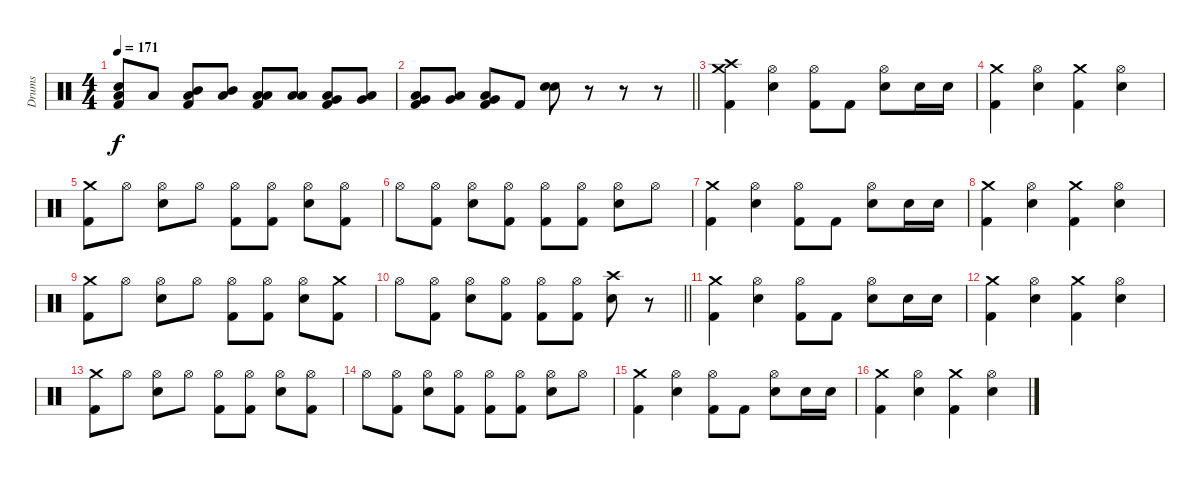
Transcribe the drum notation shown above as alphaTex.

\track ("Drums" "Drums") {instrument percussion}
\staff {score}
\articulation defaults
\ts (4 4)
\tempo 171
\clef neutral
\ks c
("Electric Snare (hit)" "Low Floor Tom (hit)" "Kick (hit) 2").8{dy f} "Low Floor Tom (hit)".8 ("Mid Tom (hit)" "Low Floor Tom (hit)" "Kick (hit) 2").8 ("Mid Tom (hit)" "Low Floor Tom (hit)").8 ("Low Tom (hit)" "Low Floor Tom (hit)" "Kick (hit) 2").8 ("Low Tom (hit)" "Low Floor Tom (hit)").8 ("Very Low Tom (hit)" "Low Floor Tom (hit)" "Kick (hit) 2").8 ("Very Low Tom (hit)" "Low Floor Tom (hit)").8 |
\barLineRight lightlight
("Very Low Tom (hit)" "Low Floor Tom (hit)" "Kick (hit) 2").8 ("Very Low Tom (hit)" "Low Floor Tom (hit)").8 ("Very Low Tom (hit)" "Low Floor Tom (hit)" "Kick (hit) 2").8 "Kick (hit) 2".8 ("Electric Snare (hit)" "Electric Snare (hit)").8 r.8 r.8 r.8 |
("Crash medium (hit)" "Crash high (hit)" "Kick (hit) 2").4 ("Hi-Hat (open)" "Electric Snare (hit)").4 ("Hi-Hat (open)" "Kick (hit) 2").8 "Kick (hit) 2".8 ("Hi-Hat (open)" "Electric Snare (hit)").8 "Electric Snare (hit)".16 "Electric Snare (hit)".16 |
("Crash medium (hit)" "Kick (hit) 2").4 ("Hi-Hat (open)" "Electric Snare (hit)").4 ("Crash medium (hit)" "Kick (hit) 2").4 ("Hi-Hat (open)" "Electric Snare (hit)").4 |
("Crash medium (hit)" "Kick (hit) 2").8 "Hi-Hat (open)".8 ("Hi-Hat (open)" "Electric Snare (hit)").8 "Hi-Hat (open)".8 ("Hi-Hat (open)" "Kick (hit) 2").8 ("Hi-Hat (open)" "Kick (hit) 2").8 ("Hi-Hat (open)" "Electric Snare (hit)").8 ("Hi-Hat (open)" "Kick (hit) 2").8 |
"Hi-Hat (open)".8 ("Hi-Hat (open)" "Kick (hit) 2").8 ("Hi-Hat (open)" "Electric Snare (hit)").8 ("Hi-Hat (open)" "Kick (hit) 2").8 ("Hi-Hat (open)" "Kick (hit) 2").8 ("Hi-Hat (open)" "Kick (hit) 2").8 ("Hi-Hat (open)" "Electric Snare (hit)").8 "Hi-Hat (open)".8 |
("Crash medium (hit)" "Kick (hit) 2").4 ("Hi-Hat (open)" "Electric Snare (hit)").4 ("Hi-Hat (open)" "Kick (hit) 2").8 "Kick (hit) 2".8 ("Hi-Hat (open)" "Electric Snare (hit)").8 "Electric Snare (hit)".16 "Electric Snare (hit)".16 |
("Crash medium (hit)" "Kick (hit) 2").4 ("Hi-Hat (open)" "Electric Snare (hit)").4 ("Crash medium (hit)" "Kick (hit) 2").4 ("Hi-Hat (open)" "Electric Snare (hit)").4 |
("Crash medium (hit)" "Kick (hit) 2").8 "Hi-Hat (open)".8 ("Hi-Hat (open)" "Electric Snare (hit)").8 "Hi-Hat (open)".8 ("Hi-Hat (open)" "Kick (hit) 2").8 ("Hi-Hat (open)" "Kick (hit) 2").8 ("Hi-Hat (open)" "Electric Snare (hit)").8 ("Crash medium (hit)" "Kick (hit) 2").8 |
\barLineRight lightlight "Hi-Hat (open)".8
("Hi-Hat (open)" "Kick (hit) 2").8 ("Hi-Hat (open)" "Electric Snare (hit)").8 ("Hi-Hat (open)" "Kick (hit) 2").8 ("Hi-Hat (open)" "Kick (hit) 2").8 ("Hi-Hat (open)" "Kick (hit) 2").8 ("Crash high (hit)" "Electric Snare (hit)").8 r.8 |
("Crash medium (hit)" "Kick (hit) 2").4 ("Hi-Hat (open)" "Electric Snare (hit)").4 ("Hi-Hat (open)" "Kick (hit) 2").8 "Kick (hit) 2".8 ("Hi-Hat (open)" "Electric Snare (hit)").8 "Electric Snare (hit)".16 "Electric Snare (hit)".16 |
("Crash medium (hit)" "Kick (hit) 2").4 ("Hi-Hat (open)" "Electric Snare (hit)").4 ("Crash medium (hit)" "Kick (hit) 2").4 ("Hi-Hat (open)" "Electric Snare (hit)").4 |
("Crash medium (hit)" "Kick (hit) 2").8 "Hi-Hat (open)".8 ("Hi-Hat (open)" "Electric Snare (hit)").8 "Hi-Hat (open)".8 ("Hi-Hat (open)" "Kick (hit) 2").8 ("Hi-Hat (open)" "Kick (hit) 2").8 ("Hi-Hat (open)" "Electric Snare (hit)").8 ("Hi-Hat (open)" "Kick (hit) 2").8 |
"Hi-Hat (open)".8 ("Hi-Hat (open)" "Kick (hit) 2").8 ("Hi-Hat (open)" "Electric Snare (hit)").8 ("Hi-Hat (open)" "Kick (hit) 2").8 ("Hi-Hat (open)" "Kick (hit) 2").8 ("Hi-Hat (open)" "Kick (hit) 2").8 ("Hi-Hat (open)" "Electric Snare (hit)").8 "Hi-Hat (open)".8 |
("Crash medium (hit)" "Kick (hit) 2").4 ("Hi-Hat (open)" "Electric Snare (hit)").4 ("Hi-Hat (open)" "Kick (hit) 2").8 "Kick (hit) 2".8 ("Hi-Hat (open)" "Electric Snare (hit)").8 "Electric Snare (hit)".16 "Electric Snare (hit)".16 |
("Crash medium (hit)" "Kick (hit) 2").4 ("Hi-Hat (open)" "Electric Snare (hit)").4 ("Crash medium (hit)" "Kick (hit) 2").4 ("Hi-Hat (open)" "Electric Snare (hit)").4
